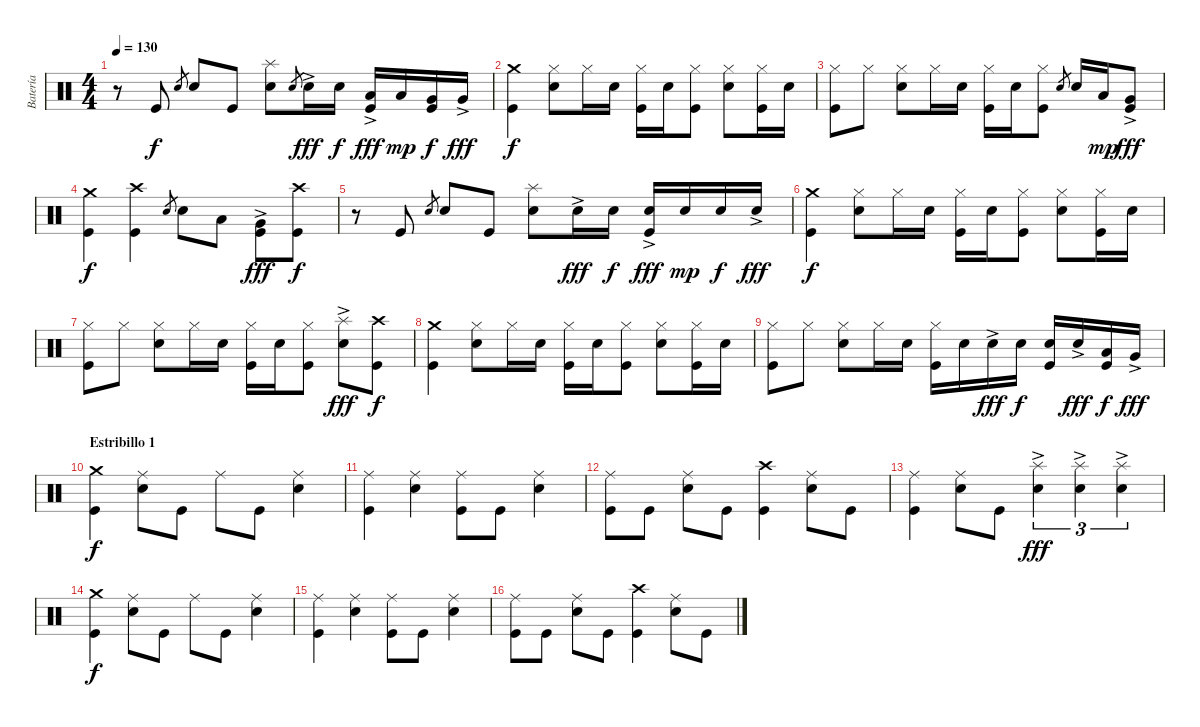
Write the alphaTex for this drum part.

\track ("Batería" "Batería") {instrument percussion}
\staff {score}
\articulation defaults
\ts (4 4)
\tempo 130
\clef neutral
\ks c
r.8{dy f} "Kick (hit)".8 "Electric Snare (hit)".8{gr} "Electric Snare (hit)".8 "Kick (hit)".8 ("Electric Snare (hit)" "Splash (hit)").8 "Electric Snare (hit)".8{gr} "Electric Snare (hit)"{ac}.16{dy fff} "Electric Snare (hit)".16{dy f} ("Kick (hit)" "Low Tom (hit)"{ac}).16{dy fff} "Low Tom (hit)".16{dy mp} ("Kick (hit)" "Very Low Tom (hit)").16{dy f} "Very Low Tom (hit)"{ac}.16{dy fff} |
("Kick (hit)" "Crash medium (hit)").4{dy f} ("Electric Snare (hit)" "Hi-Hat (closed)").8 "Hi-Hat (closed)".16 "Electric Snare (hit)".16 ("Kick (hit)" "Hi-Hat (closed)").16 "Electric Snare (hit)".16 ("Kick (hit)" "Hi-Hat (closed)").8 ("Electric Snare (hit)" "Hi-Hat (closed)").8 ("Kick (hit)" "Hi-Hat (closed)").16 "Electric Snare (hit)".16 |
("Kick (hit)" "Hi-Hat (closed)").8 "Hi-Hat (closed)".8 ("Electric Snare (hit)" "Hi-Hat (closed)").8 "Hi-Hat (closed)".16 "Electric Snare (hit)".16 ("Kick (hit)" "Hi-Hat (closed)").16 "Electric Snare (hit)".16 ("Kick (hit)" "Hi-Hat (closed)").8 "Electric Snare (hit)".8{gr} "Electric Snare (hit)".16 "Low Tom (hit)".16{dy mp} ("Kick (hit)" "Very Low Tom (hit)"{ac}).8{dy fff} |
("Kick (hit)" "Crash medium (hit)").4{dy f} ("Kick (hit)" "Crash high (hit)").4 "Electric Snare (hit)".8{gr} "Electric Snare (hit)".8 "Low Tom (hit)".8 ("Kick (hit)" "Very Low Tom (hit)"{ac}).8{dy fff} ("Kick (hit)" "Crash high (hit)").8{dy f} |
r.8 "Kick (hit)".8 "Electric Snare (hit)".8{gr} "Electric Snare (hit)".8 "Kick (hit)".8 ("Electric Snare (hit)" "Splash (hit)").8 "Electric Snare (hit)"{ac}.16{dy fff} "Electric Snare (hit)".16{dy f} ("Kick (hit)" "Electric Snare (hit)"{ac}).16{dy fff} "Electric Snare (hit)".16{dy mp} "Electric Snare (hit)".16{dy f} "Electric Snare (hit)"{ac}.16{dy fff} |
("Kick (hit)" "Crash medium (hit)").4{dy f} ("Electric Snare (hit)" "Hi-Hat (closed)").8 "Hi-Hat (closed)".16 "Electric Snare (hit)".16 ("Kick (hit)" "Hi-Hat (closed)").16 "Electric Snare (hit)".16 ("Kick (hit)" "Hi-Hat (closed)").8 ("Electric Snare (hit)" "Hi-Hat (closed)").8 ("Kick (hit)" "Hi-Hat (closed)").16 "Electric Snare (hit)".16 |
("Kick (hit)" "Hi-Hat (closed)").8 "Hi-Hat (closed)".8 ("Electric Snare (hit)" "Hi-Hat (closed)").8 "Hi-Hat (closed)".16 "Electric Snare (hit)".16 ("Kick (hit)" "Hi-Hat (closed)").16 "Electric Snare (hit)".16 ("Kick (hit)" "Hi-Hat (closed)").8 ("Electric Snare (hit)" "Splash (hit)"{ac}).8{dy fff} ("Kick (hit)" "Crash high (hit)").8{dy f} |
("Kick (hit)" "Crash medium (hit)").4 ("Electric Snare (hit)" "Hi-Hat (closed)").8 "Hi-Hat (closed)".16 "Electric Snare (hit)".16 ("Kick (hit)" "Hi-Hat (closed)").16 "Electric Snare (hit)".16 ("Kick (hit)" "Hi-Hat (closed)").8 ("Electric Snare (hit)" "Hi-Hat (closed)").8 ("Kick (hit)" "Hi-Hat (closed)").16 "Electric Snare (hit)".16 |
("Kick (hit)" "Hi-Hat (closed)").8 "Hi-Hat (closed)".8 ("Electric Snare (hit)" "Hi-Hat (closed)").8 "Hi-Hat (closed)".16 "Electric Snare (hit)".16 ("Kick (hit)" "Hi-Hat (closed)").16 "Electric Snare (hit)".16 "Electric Snare (hit)"{ac}.16{dy fff} "Electric Snare (hit)".16{dy f} ("Kick (hit)" "Electric Snare (hit)").16 "Electric Snare (hit)"{ac}.16{dy fff} ("Kick (hit)" "Low Tom (hit)").16{dy f} "Very Low Tom (hit)"{ac}.16{dy fff} |
\section ("" "Estribillo 1")
("Kick (hit)" "Crash medium (hit)").4{dy f} ("Electric Snare (hit)" "Ride (middle)").8 "Kick (hit)".8 "Ride (middle)".8 "Kick (hit)".8 ("Electric Snare (hit)" "Ride (middle)").4 |
("Kick (hit)" "Ride (middle)").4 ("Electric Snare (hit)" "Ride (middle)").4 ("Kick (hit)" "Ride (middle)").8 "Kick (hit)".8 ("Electric Snare (hit)" "Ride (middle)").4 |
("Kick (hit)" "Ride (middle)").8 "Kick (hit)".8 ("Electric Snare (hit)" "Ride (middle)").8 "Kick (hit)".8 ("Kick (hit)" "Crash high (hit)").4 ("Electric Snare (hit)" "Ride (middle)").8 "Kick (hit)".8 |
("Kick (hit)" "Ride (middle)").4 ("Electric Snare (hit)" "Ride (middle)").8 "Kick (hit)".8 ("Electric Snare (hit)" "Splash (hit)"{ac}).4{tu (3 2) dy fff} ("Electric Snare (hit)" "Splash (hit)"{ac}).4{tu (3 2)} ("Electric Snare (hit)" "Splash (hit)"{ac}).4{tu (3 2)} |
("Kick (hit)" "Crash medium (hit)").4{dy f} ("Electric Snare (hit)" "Ride (middle)").8 "Kick (hit)".8 "Ride (middle)".8 "Kick (hit)".8 ("Electric Snare (hit)" "Ride (middle)").4 |
("Kick (hit)" "Ride (middle)").4 ("Electric Snare (hit)" "Ride (middle)").4 ("Kick (hit)" "Ride (middle)").8 "Kick (hit)".8 ("Electric Snare (hit)" "Ride (middle)").4 |
("Kick (hit)" "Ride (middle)").8 "Kick (hit)".8 ("Electric Snare (hit)" "Ride (middle)").8 "Kick (hit)".8 ("Kick (hit)" "Crash high (hit)").4 ("Electric Snare (hit)" "Ride (middle)").8 "Kick (hit)".8
